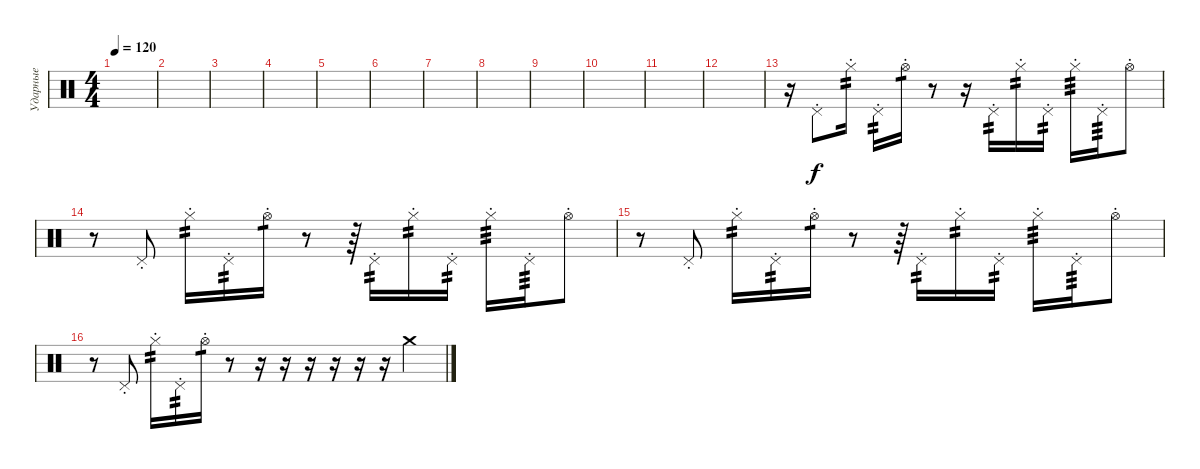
\track ("Ударные" "Ударные") {instrument percussion}
\staff {score}
\articulation defaults
\ts (4 4)
\tempo 120
\clef neutral
\ks c
|
|
|
|
|
|
|
|
|
|
|
|
r.16 "Pedal Hi-Hat (hit)"{st}.8 "Hi-Hat (closed)"{st}.16{tp 2} "Pedal Hi-Hat (hit)"{st}.16{tp 2} "Hi-Hat (open)"{st}.16{tp 1} r.8 r.16 "Pedal Hi-Hat (hit)"{st}.16{tp 2} "Hi-Hat (closed)"{st}.16{tp 2} "Pedal Hi-Hat (hit)"{st}.16{tp 2} "Hi-Hat (closed)"{st}.16{tp 3} "Pedal Hi-Hat (hit)"{st}.16{tp 3} "Hi-Hat (open)"{st}.8 |
r.8 "Pedal Hi-Hat (hit)"{st}.8 "Hi-Hat (closed)"{st}.16{tp 2} "Pedal Hi-Hat (hit)"{st}.16{tp 2} "Hi-Hat (open)"{st}.16{tp 1} r.8 r.64 "Pedal Hi-Hat (hit)"{st}.16{tp 2} "Hi-Hat (closed)"{st}.16{tp 2} "Pedal Hi-Hat (hit)"{st}.16{tp 2} "Hi-Hat (closed)"{st}.16{tp 3} "Pedal Hi-Hat (hit)"{st}.16{tp 3} "Hi-Hat (open)"{st}.8 |
r.8 "Pedal Hi-Hat (hit)"{st}.8 "Hi-Hat (closed)"{st}.16{tp 2} "Pedal Hi-Hat (hit)"{st}.16{tp 2} "Hi-Hat (open)"{st}.16{tp 1} r.8 r.64 "Pedal Hi-Hat (hit)"{st}.16{tp 2} "Hi-Hat (closed)"{st}.16{tp 2} "Pedal Hi-Hat (hit)"{st}.16{tp 2} "Hi-Hat (closed)"{st}.16{tp 3} "Pedal Hi-Hat (hit)"{st}.16{tp 3} "Hi-Hat (open)"{st}.8 |
r.8 "Pedal Hi-Hat (hit)"{st}.8 "Hi-Hat (closed)"{st}.16{tp 2} "Pedal Hi-Hat (hit)"{st}.16{tp 2} "Hi-Hat (open)"{st}.16{tp 1} r.8 r.16 r.16 r.16 r.16 r.16 r.16 "Crash medium (hit)".4
